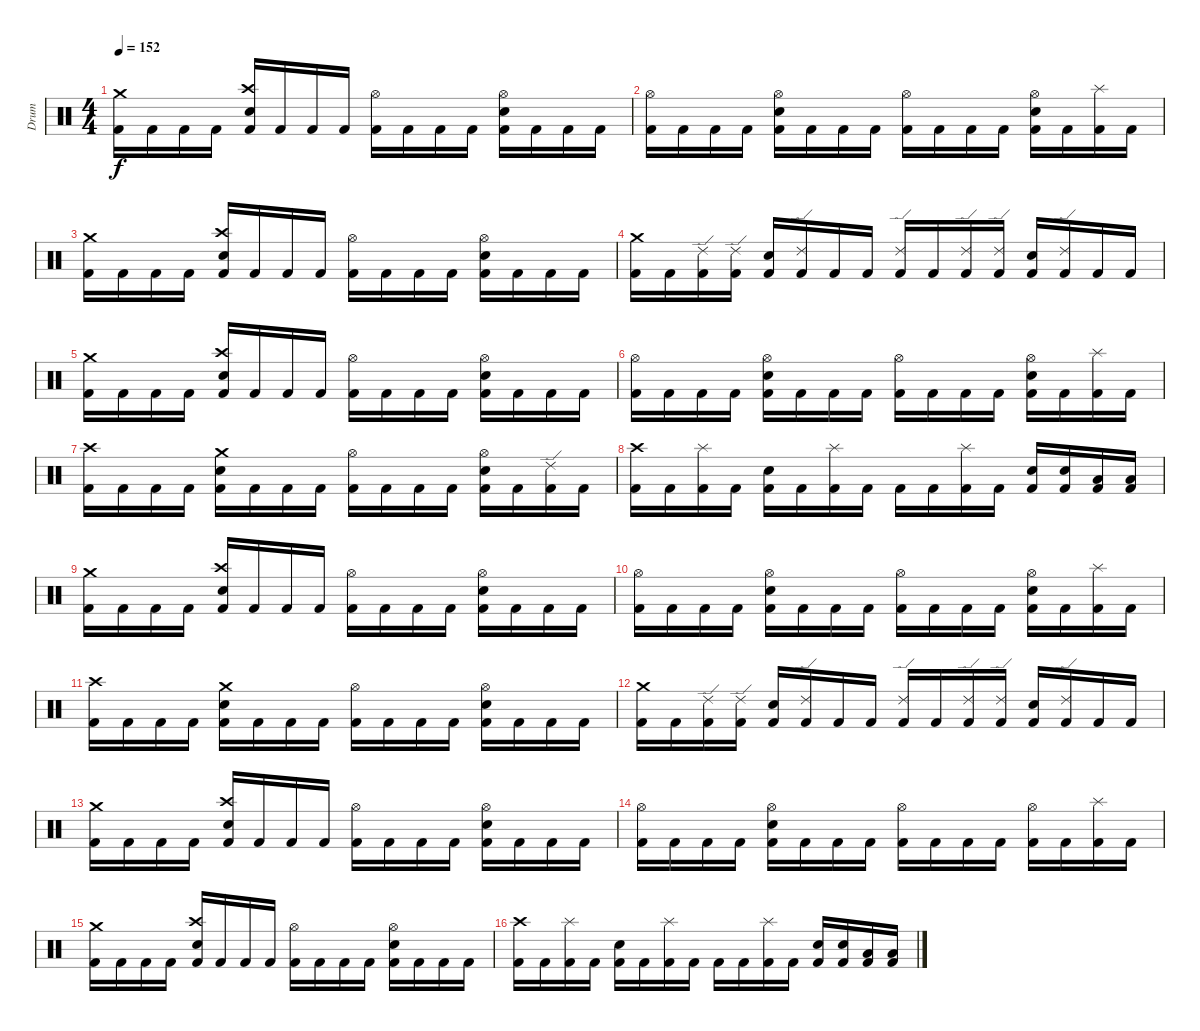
\track ("Drum" "Drum") {instrument percussion}
\staff {score}
\articulation defaults
\ts (4 4)
\tempo 152
\clef neutral
\ks c
("Crash medium (hit)" "Kick (hit) 2").16{dy f} "Kick (hit) 2".16 "Kick (hit) 2".16 "Kick (hit) 2".16 ("Crash high (hit)" "Snare (hit) 2" "Kick (hit) 2").16 "Kick (hit) 2".16 "Kick (hit) 2".16 "Kick (hit) 2".16 ("Hi-Hat (open)" "Kick (hit) 2").16 "Kick (hit) 2".16 "Kick (hit) 2".16 "Kick (hit) 2".16 ("Hi-Hat (open)" "Snare (hit) 2" "Kick (hit) 2").16 "Kick (hit) 2".16 "Kick (hit) 2".16 "Kick (hit) 2".16 |
("Hi-Hat (open)" "Kick (hit) 2").16 "Kick (hit) 2".16 "Kick (hit) 2".16 "Kick (hit) 2".16 ("Hi-Hat (open)" "Snare (hit) 2" "Kick (hit) 2").16 "Kick (hit) 2".16 "Kick (hit) 2".16 "Kick (hit) 2".16 ("Hi-Hat (open)" "Kick (hit) 2").16 "Kick (hit) 2".16 "Kick (hit) 2".16 "Kick (hit) 2".16 ("Hi-Hat (open)" "Snare (hit) 2" "Kick (hit) 2").16 "Kick (hit) 2".16 ("Splash (hit)" "Kick (hit) 2").16 "Kick (hit) 2".16 |
("Crash medium (hit)" "Kick (hit) 2").16 "Kick (hit) 2".16 "Kick (hit) 2".16 "Kick (hit) 2".16 ("Crash high (hit)" "Snare (hit) 2" "Kick (hit) 2").16 "Kick (hit) 2".16 "Kick (hit) 2".16 "Kick (hit) 2".16 ("Hi-Hat (open)" "Kick (hit) 2").16 "Kick (hit) 2".16 "Kick (hit) 2".16 "Kick (hit) 2".16 ("Hi-Hat (open)" "Snare (hit) 2" "Kick (hit) 2").16 "Kick (hit) 2".16 "Kick (hit) 2".16 "Kick (hit) 2".16 |
("Crash medium (hit)" "Kick (hit) 2").16 "Kick (hit) 2".16 ("Ride (edge) 2" "Kick (hit) 2").16 ("Ride (edge) 2" "Kick (hit) 2").16 ("Snare (hit) 2" "Kick (hit) 2").16 ("Ride (edge) 2" "Kick (hit) 2").16 "Kick (hit) 2".16 "Kick (hit) 2".16 ("Ride (edge) 2" "Kick (hit) 2").16 "Kick (hit) 2".16 ("Ride (edge) 2" "Kick (hit) 2").16 ("Ride (edge) 2" "Kick (hit) 2").16 ("Snare (hit) 2" "Kick (hit) 2").16 ("Ride (edge) 2" "Kick (hit) 2").16 "Kick (hit) 2".16 "Kick (hit) 2".16 |
("Crash medium (hit)" "Kick (hit) 2").16 "Kick (hit) 2".16 "Kick (hit) 2".16 "Kick (hit) 2".16 ("Crash high (hit)" "Snare (hit) 2" "Kick (hit) 2").16 "Kick (hit) 2".16 "Kick (hit) 2".16 "Kick (hit) 2".16 ("Hi-Hat (open)" "Kick (hit) 2").16 "Kick (hit) 2".16 "Kick (hit) 2".16 "Kick (hit) 2".16 ("Hi-Hat (open)" "Snare (hit) 2" "Kick (hit) 2").16 "Kick (hit) 2".16 "Kick (hit) 2".16 "Kick (hit) 2".16 |
("Hi-Hat (open)" "Kick (hit) 2").16 "Kick (hit) 2".16 "Kick (hit) 2".16 "Kick (hit) 2".16 ("Hi-Hat (open)" "Snare (hit) 2" "Kick (hit) 2").16 "Kick (hit) 2".16 "Kick (hit) 2".16 "Kick (hit) 2".16 ("Hi-Hat (open)" "Kick (hit) 2").16 "Kick (hit) 2".16 "Kick (hit) 2".16 "Kick (hit) 2".16 ("Hi-Hat (open)" "Snare (hit) 2" "Kick (hit) 2").16 "Kick (hit) 2".16 ("Splash (hit)" "Kick (hit) 2").16 "Kick (hit) 2".16 |
("Crash high (hit)" "Kick (hit) 2").16 "Kick (hit) 2".16 "Kick (hit) 2".16 "Kick (hit) 2".16 ("Crash medium (hit)" "Snare (hit) 2" "Kick (hit) 2").16 "Kick (hit) 2".16 "Kick (hit) 2".16 "Kick (hit) 2".16 ("Hi-Hat (open)" "Kick (hit) 2").16 "Kick (hit) 2".16 "Kick (hit) 2".16 "Kick (hit) 2".16 ("Hi-Hat (open)" "Snare (hit) 2" "Kick (hit) 2").16 "Kick (hit) 2".16 ("Ride (edge) 2" "Kick (hit) 2").16 "Kick (hit) 2".16 |
("Crash high (hit)" "Kick (hit) 2").16 "Kick (hit) 2".16 ("Splash (hit)" "Kick (hit) 2").16 "Kick (hit) 2".16 ("Snare (hit) 2" "Kick (hit) 2").16 "Kick (hit) 2".16 ("Splash (hit)" "Kick (hit) 2").16 "Kick (hit) 2".16 "Kick (hit) 2".16 "Kick (hit) 2".16 ("Splash (hit)" "Kick (hit) 2").16 "Kick (hit) 2".16 ("Snare (hit) 2" "Kick (hit) 2").16 ("Snare (hit) 2" "Kick (hit) 2").16 ("Low Tom (hit)" "Kick (hit) 2").16 ("Low Tom (hit)" "Kick (hit) 2").16 |
("Crash medium (hit)" "Kick (hit) 2").16 "Kick (hit) 2".16 "Kick (hit) 2".16 "Kick (hit) 2".16 ("Crash high (hit)" "Snare (hit) 2" "Kick (hit) 2").16 "Kick (hit) 2".16 "Kick (hit) 2".16 "Kick (hit) 2".16 ("Hi-Hat (open)" "Kick (hit) 2").16 "Kick (hit) 2".16 "Kick (hit) 2".16 "Kick (hit) 2".16 ("Hi-Hat (open)" "Snare (hit) 2" "Kick (hit) 2").16 "Kick (hit) 2".16 "Kick (hit) 2".16 "Kick (hit) 2".16 |
("Hi-Hat (open)" "Kick (hit) 2").16 "Kick (hit) 2".16 "Kick (hit) 2".16 "Kick (hit) 2".16 ("Hi-Hat (open)" "Snare (hit) 2" "Kick (hit) 2").16 "Kick (hit) 2".16 "Kick (hit) 2".16 "Kick (hit) 2".16 ("Hi-Hat (open)" "Kick (hit) 2").16 "Kick (hit) 2".16 "Kick (hit) 2".16 "Kick (hit) 2".16 ("Hi-Hat (open)" "Snare (hit) 2" "Kick (hit) 2").16 "Kick (hit) 2".16 ("Splash (hit)" "Kick (hit) 2").16 "Kick (hit) 2".16 |
("Crash high (hit)" "Kick (hit) 2").16 "Kick (hit) 2".16 "Kick (hit) 2".16 "Kick (hit) 2".16 ("Crash medium (hit)" "Snare (hit) 2" "Kick (hit) 2").16 "Kick (hit) 2".16 "Kick (hit) 2".16 "Kick (hit) 2".16 ("Hi-Hat (open)" "Kick (hit) 2").16 "Kick (hit) 2".16 "Kick (hit) 2".16 "Kick (hit) 2".16 ("Hi-Hat (open)" "Snare (hit) 2" "Kick (hit) 2").16 "Kick (hit) 2".16 "Kick (hit) 2".16 "Kick (hit) 2".16 |
("Crash medium (hit)" "Kick (hit) 2").16 "Kick (hit) 2".16 ("Ride (edge) 2" "Kick (hit) 2").16 ("Ride (edge) 2" "Kick (hit) 2").16 ("Snare (hit) 2" "Kick (hit) 2").16 ("Ride (edge) 2" "Kick (hit) 2").16 "Kick (hit) 2".16 "Kick (hit) 2".16 ("Ride (edge) 2" "Kick (hit) 2").16 "Kick (hit) 2".16 ("Ride (edge) 2" "Kick (hit) 2").16 ("Ride (edge) 2" "Kick (hit) 2").16 ("Snare (hit) 2" "Kick (hit) 2").16 ("Ride (edge) 2" "Kick (hit) 2").16 "Kick (hit) 2".16 "Kick (hit) 2".16 |
("Crash medium (hit)" "Kick (hit) 2").16 "Kick (hit) 2".16 "Kick (hit) 2".16 "Kick (hit) 2".16 ("Crash high (hit)" "Snare (hit) 2" "Kick (hit) 2").16 "Kick (hit) 2".16 "Kick (hit) 2".16 "Kick (hit) 2".16 ("Hi-Hat (open)" "Kick (hit) 2").16 "Kick (hit) 2".16 "Kick (hit) 2".16 "Kick (hit) 2".16 ("Hi-Hat (open)" "Snare (hit) 2" "Kick (hit) 2").16 "Kick (hit) 2".16 "Kick (hit) 2".16 "Kick (hit) 2".16 |
("Hi-Hat (open)" "Kick (hit) 2").16 "Kick (hit) 2".16 "Kick (hit) 2".16 "Kick (hit) 2".16 ("Hi-Hat (open)" "Snare (hit) 2" "Kick (hit) 2").16 "Kick (hit) 2".16 "Kick (hit) 2".16 "Kick (hit) 2".16 ("Hi-Hat (open)" "Kick (hit) 2").16 "Kick (hit) 2".16 "Kick (hit) 2".16 "Kick (hit) 2".16 ("Hi-Hat (open)" "Kick (hit) 2").16 "Kick (hit) 2".16 ("Splash (hit)" "Kick (hit) 2").16 "Kick (hit) 2".16 |
("Crash medium (hit)" "Kick (hit) 2").16 "Kick (hit) 2".16 "Kick (hit) 2".16 "Kick (hit) 2".16 ("Crash high (hit)" "Snare (hit) 2" "Kick (hit) 2").16 "Kick (hit) 2".16 "Kick (hit) 2".16 "Kick (hit) 2".16 ("Hi-Hat (open)" "Kick (hit) 2").16 "Kick (hit) 2".16 "Kick (hit) 2".16 "Kick (hit) 2".16 ("Hi-Hat (open)" "Snare (hit) 2" "Kick (hit) 2").16 "Kick (hit) 2".16 "Kick (hit) 2".16 "Kick (hit) 2".16 |
("Crash high (hit)" "Kick (hit) 2").16 "Kick (hit) 2".16 ("Splash (hit)" "Kick (hit) 2").16 "Kick (hit) 2".16 ("Snare (hit) 2" "Kick (hit) 2").16 "Kick (hit) 2".16 ("Splash (hit)" "Kick (hit) 2").16 "Kick (hit) 2".16 "Kick (hit) 2".16 "Kick (hit) 2".16 ("Splash (hit)" "Kick (hit) 2").16 "Kick (hit) 2".16 ("Snare (hit) 2" "Kick (hit) 2").16 ("Snare (hit) 2" "Kick (hit) 2").16 ("Low Tom (hit)" "Kick (hit) 2").16 ("Low Tom (hit)" "Kick (hit) 2").16
